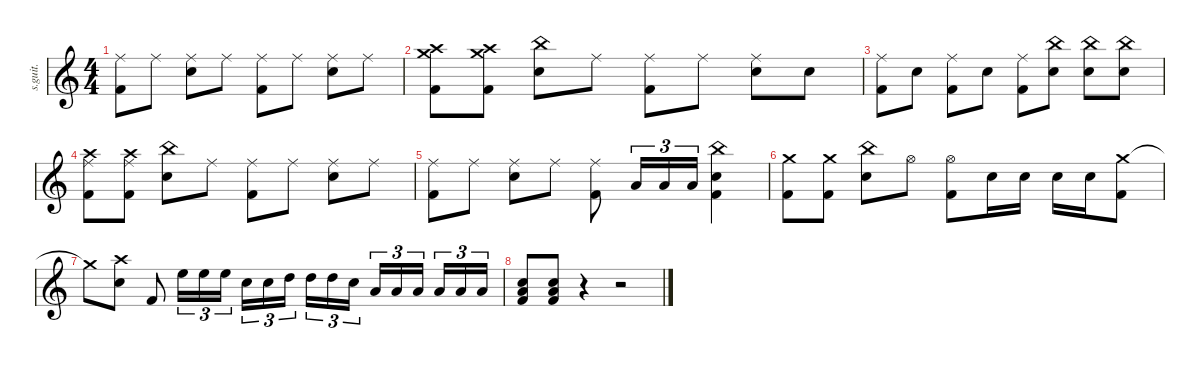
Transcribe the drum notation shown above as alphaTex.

\defaultSystemsLayout 4
\hideDynamics
\bracketExtendMode nobrackets
\track ("Mountain" "s.guit.") {instrument percussion}
\staff {score}
\articulation defaults
\ts (4 4)
\tempo (88 hide)
\clef g2
\ks c
("Ride (middle)" "Kick (hit) 2").8{dy f} "Ride (middle)".8 ("Ride (middle)" "Snare (hit) 2").8 "Ride (middle)".8 ("Ride (middle)" "Kick (hit) 2").8 "Ride (middle)".8 ("Ride (middle)" "Snare (hit) 2").8 "Ride (middle)".8 |
("Crash medium (hit)" "Crash high (hit)" "Kick (hit) 2").8 ("Crash medium (hit)" "Crash high (hit)" "Kick (hit) 2").8 ("China (hit)" "Snare (hit) 2").8 "Ride (middle)".8 ("Ride (middle)" "Kick (hit) 2").8 "Ride (middle)".8 ("Ride (middle)" "Snare (hit) 2").8 "Snare (hit) 2".8 |
("Ride (middle)" "Kick (hit) 2").8 "Snare (hit) 2".8 ("Ride (middle)" "Kick (hit) 2").8 "Snare (hit) 2".8 ("Ride (middle)" "Kick (hit) 2").8 ("China (hit)" "Snare (hit) 2").8 ("China (hit)" "Snare (hit) 2").8 ("China (hit)" "Snare (hit) 2").8 |
("Crash high (hit)" "Ride (middle)" "Kick (hit) 2").8 ("Crash high (hit)" "Ride (middle)" "Kick (hit) 2").8 ("China (hit)" "Snare (hit) 2").8 "Ride (middle)".8 ("Ride (middle)" "Kick (hit) 2").8 "Ride (middle)".8 ("Ride (middle)" "Snare (hit) 2").8 "Ride (middle)".8 |
("Ride (middle)" "Kick (hit) 2").8 "Ride (middle)".8 ("Ride (middle)" "Snare (hit) 2").8 "Ride (middle)".8 ("Ride (middle)" "Kick (hit) 2").8 "Low Tom (hit)".16{tu (3 2)} "Low Tom (hit)".16{tu (3 2)} "Low Tom (hit)".16{tu (3 2)} ("China (hit)" "Snare (hit) 2" "Kick (hit) 2").4 |
("Crash medium (hit)" "Kick (hit) 2").8 ("Crash medium (hit)" "Kick (hit) 2").8 ("China (hit)" "Snare (hit) 2").8 "Hi-Hat (open)".8 ("Hi-Hat (open)" "Kick (hit) 2").8 "Snare (hit) 2".16 "Snare (hit) 2".16 "Snare (hit) 2".16 "Snare (hit) 2".16 ("Crash medium (hit)" "Kick (hit) 2").8 |
"Crash medium (hit)"{t}.8 ("Crash high (hit)" "Snare (hit) 2").8 "Kick (hit) 2".8 "High Floor Tom (hit)".16{tu (3 2)} "High Floor Tom (hit)".16{tu (3 2)} "High Floor Tom (hit)".16{tu (3 2)} "Snare (hit) 2".16{tu (3 2)} "Snare (hit) 2".16{tu (3 2)} "High Tom (hit)".16{tu (3 2)} "High Tom (hit)".16{tu (3 2)} "High Tom (hit)".16{tu (3 2)} "Snare (hit) 2".16{tu (3 2)} "Low Tom (hit)".16{tu (3 2)} "Low Tom (hit)".16{tu (3 2)} "Low Tom (hit)".16{tu (3 2)} "Low Tom (hit)".16{tu (3 2)} "Low Tom (hit)".16{tu (3 2)} "Low Tom (hit)".16{tu (3 2)} |
("Snare (hit) 2" "Low Tom (hit)" "Kick (hit) 2").8 ("Snare (hit) 2" "Low Tom (hit)" "Kick (hit) 2").8 r.4 r.2
